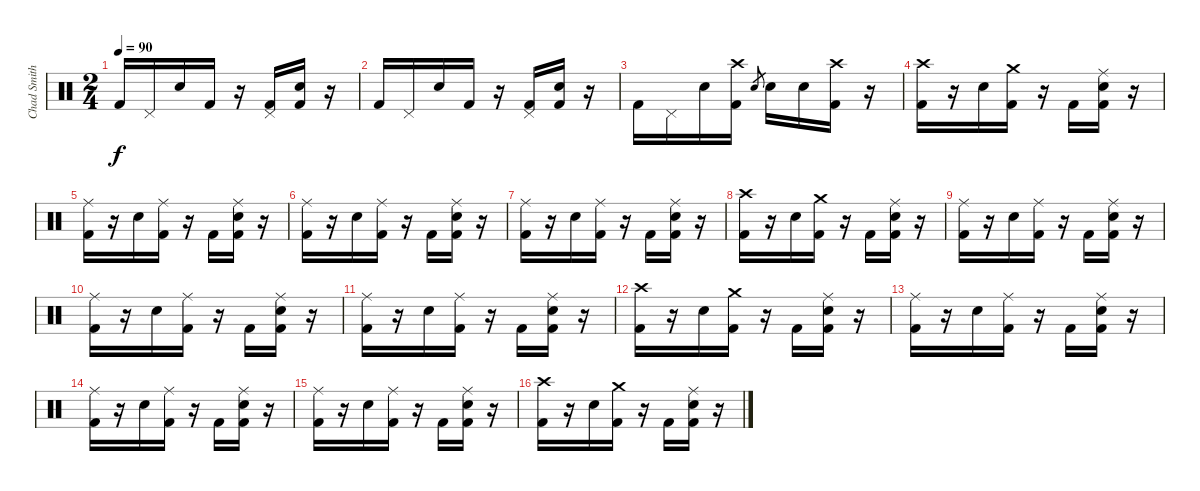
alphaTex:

\track ("Chad Smith" "Chad Smith") {instrument percussion}
\staff {score}
\articulation defaults
\ts (2 4)
\tempo 90
\clef neutral
\ks c "Kick (hit) 2".16{dy f} "Pedal Hi-Hat (hit)".16 "Electric Snare (hit)".16 "Kick (hit) 2".16
r.16 ("Pedal Hi-Hat (hit)" "Kick (hit) 2").16 ("Electric Snare (hit)" "Kick (hit) 2").16 r.16 |
"Kick (hit) 2".16 "Pedal Hi-Hat (hit)".16 "Electric Snare (hit)".16 "Kick (hit) 2".16 r.16 ("Pedal Hi-Hat (hit)" "Kick (hit) 2").16 ("Electric Snare (hit)" "Kick (hit) 2").16 r.16 |
"Kick (hit) 2".16 "Pedal Hi-Hat (hit)".16 "Electric Snare (hit)".16 ("Crash high (hit)" "Kick (hit) 2").16 "Electric Snare (hit)".8{gr} "Electric Snare (hit)".16 "Electric Snare (hit)".16 ("Crash high (hit)" "Kick (hit) 2").16 r.16 |
("Crash high (hit)" "Kick (hit) 2").16 r.16 "Electric Snare (hit)".16 ("Crash medium (hit)" "Kick (hit) 2").16 r.16 "Kick (hit) 2".16 ("Ride (middle)" "Electric Snare (hit)" "Kick (hit) 2").16 r.16 |
("Ride (middle)" "Kick (hit) 2").16 r.16 "Electric Snare (hit)".16 ("Ride (middle)" "Kick (hit) 2").16 r.16 "Kick (hit) 2".16 ("Ride (middle)" "Electric Snare (hit)" "Kick (hit) 2").16 r.16 |
("Ride (middle)" "Kick (hit) 2").16 r.16 "Electric Snare (hit)".16 ("Ride (middle)" "Kick (hit) 2").16 r.16 "Kick (hit) 2".16 ("Ride (middle)" "Electric Snare (hit)" "Kick (hit) 2").16 r.16 |
("Ride (middle)" "Kick (hit) 2").16 r.16 "Electric Snare (hit)".16 ("Ride (middle)" "Kick (hit) 2").16 r.16 "Kick (hit) 2".16 ("Ride (middle)" "Electric Snare (hit)" "Kick (hit) 2").16 r.16 |
("Crash high (hit)" "Kick (hit) 2").16 r.16 "Electric Snare (hit)".16 ("Crash medium (hit)" "Kick (hit) 2").16 r.16 "Kick (hit) 2".16 ("Ride (middle)" "Electric Snare (hit)" "Kick (hit) 2").16 r.16 |
("Ride (middle)" "Kick (hit) 2").16 r.16 "Electric Snare (hit)".16 ("Ride (middle)" "Kick (hit) 2").16 r.16 "Kick (hit) 2".16 ("Ride (middle)" "Electric Snare (hit)" "Kick (hit) 2").16 r.16 |
("Ride (middle)" "Kick (hit) 2").16 r.16 "Electric Snare (hit)".16 ("Ride (middle)" "Kick (hit) 2").16 r.16 "Kick (hit) 2".16 ("Ride (middle)" "Electric Snare (hit)" "Kick (hit) 2").16 r.16 |
("Ride (middle)" "Kick (hit) 2").16 r.16 "Electric Snare (hit)".16 ("Ride (middle)" "Kick (hit) 2").16 r.16 "Kick (hit) 2".16 ("Ride (middle)" "Electric Snare (hit)" "Kick (hit) 2").16 r.16 |
("Crash high (hit)" "Kick (hit) 2").16 r.16 "Electric Snare (hit)".16 ("Crash medium (hit)" "Kick (hit) 2").16 r.16 "Kick (hit) 2".16 ("Ride (middle)" "Electric Snare (hit)" "Kick (hit) 2").16 r.16 |
("Ride (middle)" "Kick (hit) 2").16 r.16 "Electric Snare (hit)".16 ("Ride (middle)" "Kick (hit) 2").16 r.16 "Kick (hit) 2".16 ("Ride (middle)" "Electric Snare (hit)" "Kick (hit) 2").16 r.16 |
("Ride (middle)" "Kick (hit) 2").16 r.16 "Electric Snare (hit)".16 ("Ride (middle)" "Kick (hit) 2").16 r.16 "Kick (hit) 2".16 ("Ride (middle)" "Electric Snare (hit)" "Kick (hit) 2").16 r.16 |
("Ride (middle)" "Kick (hit) 2").16 r.16 "Electric Snare (hit)".16 ("Ride (middle)" "Kick (hit) 2").16 r.16 "Kick (hit) 2".16 ("Ride (middle)" "Electric Snare (hit)" "Kick (hit) 2").16 r.16 |
("Crash high (hit)" "Kick (hit) 2").16 r.16 "Electric Snare (hit)".16 ("Crash medium (hit)" "Kick (hit) 2").16 r.16 "Kick (hit) 2".16 ("Ride (middle)" "Electric Snare (hit)" "Kick (hit) 2").16 r.16
